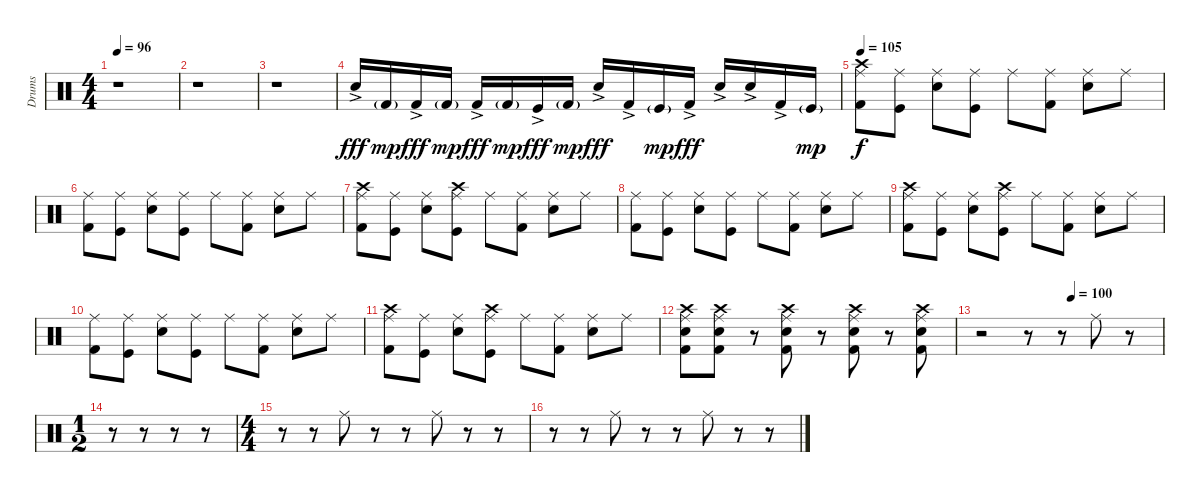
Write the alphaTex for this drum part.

\track ("Drums" "Drums") {instrument percussion}
\staff {score}
\articulation defaults
\ts (4 4)
\tempo 96
\clef neutral
\ks c
r.1{dy fff} |
r.1 |
r.1 |
"Snare (hit) 2"{ac}.16 "Kick (hit) 2"{g}.16{dy mp} "Kick (hit) 2"{ac}.16{dy fff} "Kick (hit) 2"{g}.16{dy mp} "Kick (hit) 2"{ac}.16{dy fff} "Kick (hit) 2"{g}.16{dy mp} "Kick (hit)"{ac}.16{dy fff} "Kick (hit) 2"{g}.16{dy mp} "Snare (hit) 2"{ac}.16{dy fff} "Kick (hit) 2"{ac}.16 "Kick (hit)"{g}.16{dy mp} "Kick (hit) 2"{ac}.16{dy fff} "Snare (hit) 2"{ac}.16 "Snare (hit) 2"{ac}.16 "Kick (hit) 2"{ac}.16 "Kick (hit)"{g}.16{dy mp} |
\tempo 105
("Ride (middle)" "Crash high (hit)" "Kick (hit) 2").8{dy f} ("Ride (middle)" "Kick (hit)").8 ("Ride (middle)" "Snare (hit) 2").8 ("Ride (middle)" "Kick (hit)").8 "Ride (middle)".8 ("Ride (middle)" "Kick (hit) 2").8 ("Ride (middle)" "Snare (hit) 2").8 "Ride (middle)".8 |
("Ride (middle)" "Kick (hit) 2").8 ("Ride (middle)" "Kick (hit)").8 ("Ride (middle)" "Snare (hit) 2").8 ("Ride (middle)" "Kick (hit)").8 "Ride (middle)".8 ("Ride (middle)" "Kick (hit) 2").8 ("Ride (middle)" "Snare (hit) 2").8 "Ride (middle)".8 |
("Ride (middle)" "Crash high (hit)" "Kick (hit) 2").8 ("Ride (middle)" "Kick (hit)").8 ("Ride (middle)" "Snare (hit) 2").8 ("Ride (middle)" "Crash high (hit)" "Kick (hit)").8 "Ride (middle)".8 ("Ride (middle)" "Kick (hit) 2").8 ("Ride (middle)" "Snare (hit) 2").8 "Ride (middle)".8 |
("Ride (middle)" "Kick (hit) 2").8 ("Ride (middle)" "Kick (hit)").8 ("Ride (middle)" "Snare (hit) 2").8 ("Ride (middle)" "Kick (hit)").8 "Ride (middle)".8 ("Ride (middle)" "Kick (hit) 2").8 ("Ride (middle)" "Snare (hit) 2").8 "Ride (middle)".8 |
("Ride (middle)" "Crash high (hit)" "Kick (hit) 2").8 ("Ride (middle)" "Kick (hit)").8 ("Ride (middle)" "Snare (hit) 2").8 ("Ride (middle)" "Crash high (hit)" "Kick (hit)").8 "Ride (middle)".8 ("Ride (middle)" "Kick (hit) 2").8 ("Ride (middle)" "Snare (hit) 2").8 "Ride (middle)".8 |
("Ride (middle)" "Kick (hit) 2").8 ("Ride (middle)" "Kick (hit)").8 ("Ride (middle)" "Snare (hit) 2").8 ("Ride (middle)" "Kick (hit)").8 "Ride (middle)".8 ("Ride (middle)" "Kick (hit) 2").8 ("Ride (middle)" "Snare (hit) 2").8 "Ride (middle)".8 |
("Ride (middle)" "Crash high (hit)" "Kick (hit) 2").8 ("Ride (middle)" "Kick (hit)").8 ("Ride (middle)" "Snare (hit) 2").8 ("Ride (middle)" "Crash high (hit)" "Kick (hit)").8 "Ride (middle)".8 ("Ride (middle)" "Kick (hit) 2").8 ("Ride (middle)" "Snare (hit) 2").8 "Ride (middle)".8 |
("Crash high (hit)" "Ride (middle)" "Snare (hit) 2" "Kick (hit) 2").8 ("Crash high (hit)" "Ride (middle)" "Snare (hit) 2" "Kick (hit) 2").8 r.8 ("Crash high (hit)" "Ride (middle)" "Snare (hit) 2" "Kick (hit) 2").8 r.8 ("Crash high (hit)" "Ride (middle)" "Snare (hit) 2" "Kick (hit) 2").8 r.8 ("Crash high (hit)" "Ride (middle)" "Snare (hit) 2" "Kick (hit) 2").8 |
\tempo (100 0.5)
r.2 r.8 r.8 "Ride (middle)".8 r.8 |
\ts (1 2)
r.8 r.8 r.8 r.8 |
\ts (4 4)
r.8 r.8 "Ride (middle)".8 r.8 r.8 "Ride (middle)".8 r.8 r.8 |
r.8 r.8 "Ride (middle)".8 r.8 r.8 "Ride (middle)".8 r.8 r.8
